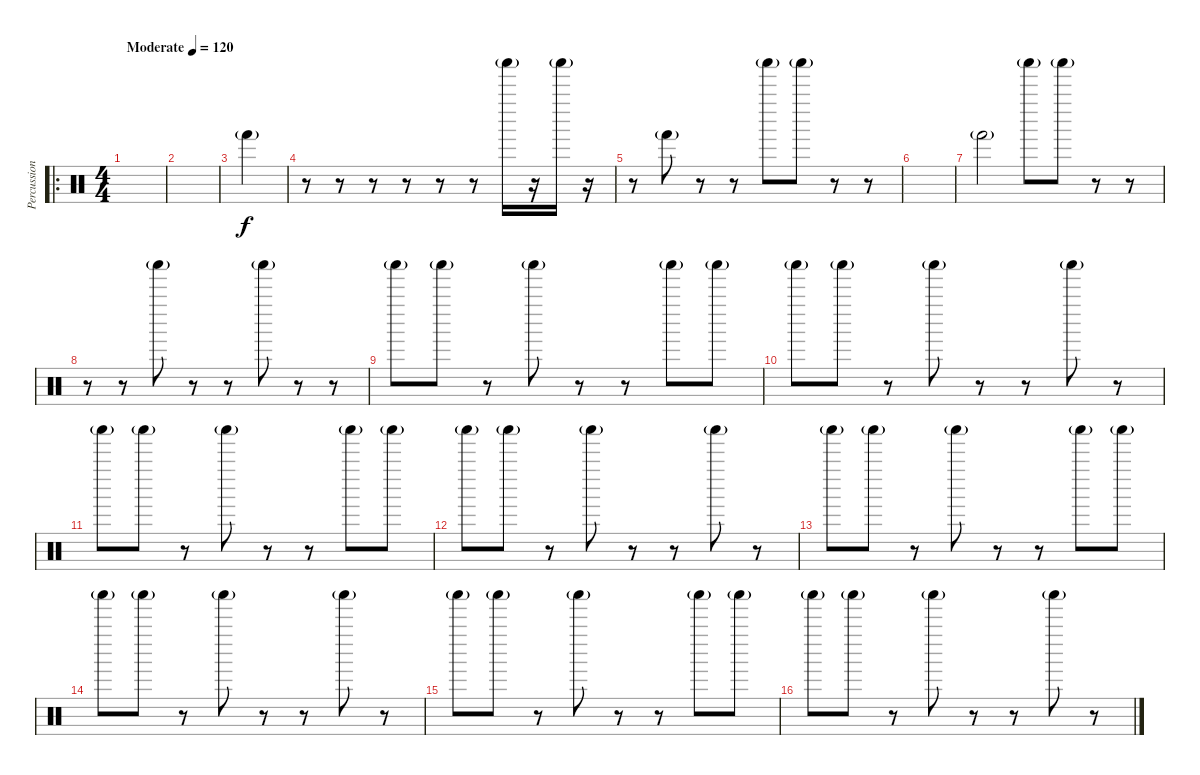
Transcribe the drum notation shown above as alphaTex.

\track ("Percussion" "Percussion") {instrument percussion}
\staff {score}
\articulation defaults
\ro
\ts (4 4)
\tempo (120 "Moderate")
\clef neutral
\ks c
|
|
"Hand (hit)"{g}.4 |
r.8 r.8 r.8 r.8 r.8 r.8 "Shaker (hit)"{g}.16 r.16 "Shaker (hit)"{g}.16 r.16 |
r.8 "Hand (hit)"{g}.8 r.8 r.8 "Shaker (hit)"{g}.8 "Shaker (hit)"{g}.8 r.8 r.8 |
|
"Hand (hit)"{g}.2 "Shaker (hit)"{g}.8 "Shaker (hit)"{g}.8 r.8 r.8 |
r.8 r.8 "Shaker (hit)"{g}.8 r.8 r.8 "Shaker (hit)"{g}.8 r.8 r.8 |
"Shaker (hit)"{g}.8 "Shaker (hit)"{g}.8 r.8 "Shaker (hit)"{g}.8 r.8 r.8 "Shaker (hit)"{g}.8 "Shaker (hit)"{g}.8 |
"Shaker (hit)"{g}.8 "Shaker (hit)"{g}.8 r.8 "Shaker (hit)"{g}.8 r.8 r.8 "Shaker (hit)"{g}.8 r.8 |
"Shaker (hit)"{g}.8 "Shaker (hit)"{g}.8 r.8 "Shaker (hit)"{g}.8 r.8 r.8 "Shaker (hit)"{g}.8 "Shaker (hit)"{g}.8 |
"Shaker (hit)"{g}.8 "Shaker (hit)"{g}.8 r.8 "Shaker (hit)"{g}.8 r.8 r.8 "Shaker (hit)"{g}.8 r.8 |
"Shaker (hit)"{g}.8 "Shaker (hit)"{g}.8 r.8 "Shaker (hit)"{g}.8 r.8 r.8 "Shaker (hit)"{g}.8 "Shaker (hit)"{g}.8 |
"Shaker (hit)"{g}.8 "Shaker (hit)"{g}.8 r.8 "Shaker (hit)"{g}.8 r.8 r.8 "Shaker (hit)"{g}.8 r.8 |
"Shaker (hit)"{g}.8 "Shaker (hit)"{g}.8 r.8 "Shaker (hit)"{g}.8 r.8 r.8 "Shaker (hit)"{g}.8 "Shaker (hit)"{g}.8 |
"Shaker (hit)"{g}.8 "Shaker (hit)"{g}.8 r.8 "Shaker (hit)"{g}.8 r.8 r.8 "Shaker (hit)"{g}.8 r.8
